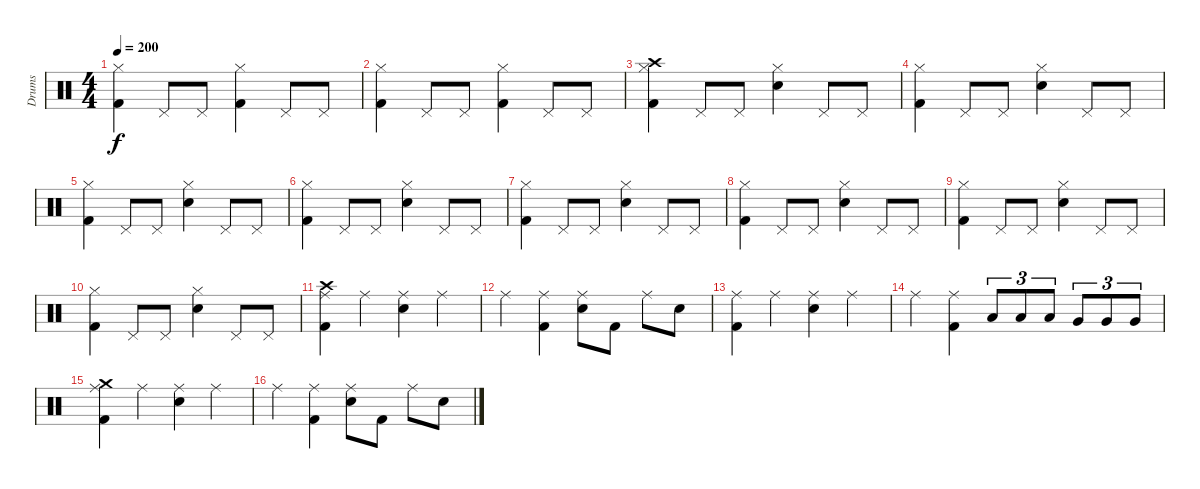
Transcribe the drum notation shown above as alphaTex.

\track ("Drums" "Drums") {instrument percussion}
\staff {score}
\articulation defaults
\ts (4 4)
\tempo 200
\clef neutral
\ks c
("Hi-Hat (closed)" "Kick (hit) 2").4{dy f} "Pedal Hi-Hat (hit)".8 "Pedal Hi-Hat (hit)".8 ("Hi-Hat (closed)" "Kick (hit) 2").4 "Pedal Hi-Hat (hit)".8 "Pedal Hi-Hat (hit)".8 |
("Hi-Hat (closed)" "Kick (hit) 2").4 "Pedal Hi-Hat (hit)".8 "Pedal Hi-Hat (hit)".8 ("Hi-Hat (closed)" "Kick (hit) 2").4 "Pedal Hi-Hat (hit)".8 "Pedal Hi-Hat (hit)".8 |
("Hi-Hat (closed)" "Crash high (hit)" "Kick (hit) 2").4 "Pedal Hi-Hat (hit)".8 "Pedal Hi-Hat (hit)".8 ("Hi-Hat (closed)" "Snare (hit) 2").4 "Pedal Hi-Hat (hit)".8 "Pedal Hi-Hat (hit)".8 |
("Hi-Hat (closed)" "Kick (hit) 2").4 "Pedal Hi-Hat (hit)".8 "Pedal Hi-Hat (hit)".8 ("Hi-Hat (closed)" "Snare (hit) 2").4 "Pedal Hi-Hat (hit)".8 "Pedal Hi-Hat (hit)".8 |
("Hi-Hat (closed)" "Kick (hit) 2").4 "Pedal Hi-Hat (hit)".8 "Pedal Hi-Hat (hit)".8 ("Hi-Hat (closed)" "Snare (hit) 2").4 "Pedal Hi-Hat (hit)".8 "Pedal Hi-Hat (hit)".8 |
("Hi-Hat (closed)" "Kick (hit) 2").4 "Pedal Hi-Hat (hit)".8 "Pedal Hi-Hat (hit)".8 ("Hi-Hat (closed)" "Snare (hit) 2").4 "Pedal Hi-Hat (hit)".8 "Pedal Hi-Hat (hit)".8 |
("Hi-Hat (closed)" "Kick (hit) 2").4 "Pedal Hi-Hat (hit)".8 "Pedal Hi-Hat (hit)".8 ("Hi-Hat (closed)" "Snare (hit) 2").4 "Pedal Hi-Hat (hit)".8 "Pedal Hi-Hat (hit)".8 |
("Hi-Hat (closed)" "Kick (hit) 2").4 "Pedal Hi-Hat (hit)".8 "Pedal Hi-Hat (hit)".8 ("Hi-Hat (closed)" "Snare (hit) 2").4 "Pedal Hi-Hat (hit)".8 "Pedal Hi-Hat (hit)".8 |
("Hi-Hat (closed)" "Kick (hit) 2").4 "Pedal Hi-Hat (hit)".8 "Pedal Hi-Hat (hit)".8 ("Hi-Hat (closed)" "Snare (hit) 2").4 "Pedal Hi-Hat (hit)".8 "Pedal Hi-Hat (hit)".8 |
("Hi-Hat (closed)" "Kick (hit) 2").4 "Pedal Hi-Hat (hit)".8 "Pedal Hi-Hat (hit)".8 ("Hi-Hat (closed)" "Snare (hit) 2").4 "Pedal Hi-Hat (hit)".8 "Pedal Hi-Hat (hit)".8 |
("Ride (middle)" "Crash high (hit)" "Kick (hit) 2").4 "Ride (middle)".4 ("Ride (middle)" "Snare (hit) 2").4 "Ride (middle)".4 |
"Ride (middle)".4 ("Ride (middle)" "Kick (hit) 2").4 ("Ride (middle)" "Snare (hit) 2").8 "Kick (hit) 2".8 "Ride (middle)".8 "Snare (hit) 2".8 |
("Ride (middle)" "Kick (hit) 2").4 "Ride (middle)".4 ("Ride (middle)" "Snare (hit) 2").4 "Ride (middle)".4 |
"Ride (middle)".4 ("Ride (middle)" "Kick (hit) 2").4 "Low Tom (hit)".8{tu (3 2)} "Low Tom (hit)".8{tu (3 2)} "Low Tom (hit)".8{tu (3 2)} "Very Low Tom (hit)".8{tu (3 2)} "Very Low Tom (hit)".8{tu (3 2)} "Very Low Tom (hit)".8{tu (3 2)} |
("Ride (middle)" "Crash medium (hit)" "Kick (hit) 2").4 "Ride (middle)".4 ("Ride (middle)" "Snare (hit) 2").4 "Ride (middle)".4 |
"Ride (middle)".4 ("Ride (middle)" "Kick (hit) 2").4 ("Ride (middle)" "Snare (hit) 2").8 "Kick (hit) 2".8 "Ride (middle)".8 "Snare (hit) 2".8
